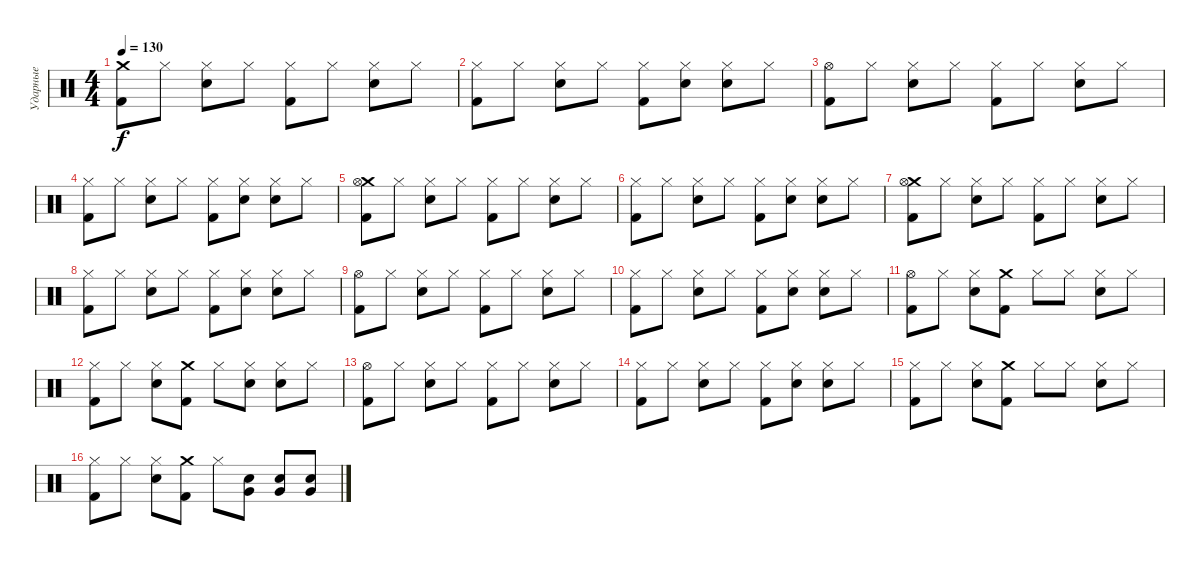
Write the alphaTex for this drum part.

\track ("Ударные" "Ударные") {instrument percussion}
\staff {score}
\articulation defaults
\ts (4 4)
\tempo 130
\clef neutral
\ks c
("Crash medium (hit)" "Kick (hit) 2").8{dy f} "Hi-Hat (closed)".8 ("Hi-Hat (closed)" "Snare (hit) 2").8 "Hi-Hat (closed)".8 ("Hi-Hat (closed)" "Kick (hit) 2").8 "Hi-Hat (closed)".8 ("Hi-Hat (closed)" "Snare (hit) 2").8 "Hi-Hat (closed)".8 |
("Hi-Hat (closed)" "Kick (hit) 2").8 "Hi-Hat (closed)".8 ("Hi-Hat (closed)" "Snare (hit) 2").8 "Hi-Hat (closed)".8 ("Hi-Hat (closed)" "Kick (hit) 2").8 ("Hi-Hat (closed)" "Snare (hit) 2").8 ("Hi-Hat (closed)" "Snare (hit) 2").8 "Hi-Hat (closed)".8 |
("Hi-Hat (open)" "Kick (hit) 2").8 "Hi-Hat (closed)".8 ("Hi-Hat (closed)" "Snare (hit) 2").8 "Hi-Hat (closed)".8 ("Hi-Hat (closed)" "Kick (hit) 2").8 "Hi-Hat (closed)".8 ("Hi-Hat (closed)" "Snare (hit) 2").8 "Hi-Hat (closed)".8 |
("Hi-Hat (closed)" "Kick (hit) 2").8 "Hi-Hat (closed)".8 ("Hi-Hat (closed)" "Snare (hit) 2").8 "Hi-Hat (closed)".8 ("Hi-Hat (closed)" "Kick (hit) 2").8 ("Hi-Hat (closed)" "Snare (hit) 2").8 ("Hi-Hat (closed)" "Snare (hit) 2").8 "Hi-Hat (closed)".8 |
("Crash medium (hit)" "Hi-Hat (open)" "Kick (hit) 2").8 "Hi-Hat (closed)".8 ("Hi-Hat (closed)" "Snare (hit) 2").8 "Hi-Hat (closed)".8 ("Hi-Hat (closed)" "Kick (hit) 2").8 "Hi-Hat (closed)".8 ("Hi-Hat (closed)" "Snare (hit) 2").8 "Hi-Hat (closed)".8 |
("Hi-Hat (closed)" "Kick (hit) 2").8 "Hi-Hat (closed)".8 ("Hi-Hat (closed)" "Snare (hit) 2").8 "Hi-Hat (closed)".8 ("Hi-Hat (closed)" "Kick (hit) 2").8 ("Hi-Hat (closed)" "Snare (hit) 2").8 ("Hi-Hat (closed)" "Snare (hit) 2").8 "Hi-Hat (closed)".8 |
("Crash medium (hit)" "Hi-Hat (open)" "Kick (hit) 2").8 "Hi-Hat (closed)".8 ("Hi-Hat (closed)" "Snare (hit) 2").8 "Hi-Hat (closed)".8 ("Hi-Hat (closed)" "Kick (hit) 2").8 "Hi-Hat (closed)".8 ("Hi-Hat (closed)" "Snare (hit) 2").8 "Hi-Hat (closed)".8 |
("Hi-Hat (closed)" "Kick (hit) 2").8 "Hi-Hat (closed)".8 ("Hi-Hat (closed)" "Snare (hit) 2").8 "Hi-Hat (closed)".8 ("Hi-Hat (closed)" "Kick (hit) 2").8 ("Hi-Hat (closed)" "Snare (hit) 2").8 ("Hi-Hat (closed)" "Snare (hit) 2").8 "Hi-Hat (closed)".8 |
("Hi-Hat (open)" "Kick (hit) 2").8 "Hi-Hat (closed)".8 ("Hi-Hat (closed)" "Snare (hit) 2").8 "Hi-Hat (closed)".8 ("Hi-Hat (closed)" "Kick (hit) 2").8 "Hi-Hat (closed)".8 ("Hi-Hat (closed)" "Snare (hit) 2").8 "Hi-Hat (closed)".8 |
("Hi-Hat (closed)" "Kick (hit) 2").8 "Hi-Hat (closed)".8 ("Hi-Hat (closed)" "Snare (hit) 2").8 "Hi-Hat (closed)".8 ("Hi-Hat (closed)" "Kick (hit) 2").8 ("Hi-Hat (closed)" "Snare (hit) 2").8 ("Hi-Hat (closed)" "Snare (hit) 2").8 "Hi-Hat (closed)".8 |
("Hi-Hat (open)" "Kick (hit) 2").8 "Hi-Hat (closed)".8 ("Hi-Hat (closed)" "Snare (hit) 2").8 ("Crash medium (hit)" "Kick (hit) 2").8 "Hi-Hat (closed)".8 "Hi-Hat (closed)".8 ("Hi-Hat (closed)" "Snare (hit) 2").8 "Hi-Hat (closed)".8 |
("Hi-Hat (closed)" "Kick (hit) 2").8 "Hi-Hat (closed)".8 ("Hi-Hat (closed)" "Snare (hit) 2").8 ("Crash medium (hit)" "Kick (hit) 2").8 "Hi-Hat (closed)".8 ("Hi-Hat (closed)" "Snare (hit) 2").8 ("Hi-Hat (closed)" "Snare (hit) 2").8 "Hi-Hat (closed)".8 |
("Hi-Hat (open)" "Kick (hit) 2").8 "Hi-Hat (closed)".8 ("Hi-Hat (closed)" "Snare (hit) 2").8 "Hi-Hat (closed)".8 ("Hi-Hat (closed)" "Kick (hit) 2").8 "Hi-Hat (closed)".8 ("Hi-Hat (closed)" "Snare (hit) 2").8 "Hi-Hat (closed)".8 |
("Hi-Hat (closed)" "Kick (hit) 2").8 "Hi-Hat (closed)".8 ("Hi-Hat (closed)" "Snare (hit) 2").8 "Hi-Hat (closed)".8 ("Hi-Hat (closed)" "Kick (hit) 2").8 ("Hi-Hat (closed)" "Snare (hit) 2").8 ("Hi-Hat (closed)" "Snare (hit) 2").8 "Hi-Hat (closed)".8 |
("Hi-Hat (closed)" "Kick (hit) 2").8 "Hi-Hat (closed)".8 ("Hi-Hat (closed)" "Snare (hit) 2").8 ("Crash medium (hit)" "Kick (hit) 2").8 "Hi-Hat (closed)".8 "Hi-Hat (closed)".8 ("Hi-Hat (closed)" "Snare (hit) 2").8 "Hi-Hat (closed)".8 |
("Hi-Hat (closed)" "Kick (hit) 2").8 "Hi-Hat (closed)".8 ("Hi-Hat (closed)" "Snare (hit) 2").8 ("Crash medium (hit)" "Kick (hit) 2").8 "Hi-Hat (closed)".8 ("Snare (hit) 2" "Very Low Tom (hit)").8 ("Snare (hit) 2" "Very Low Tom (hit)").8 ("Snare (hit) 2" "Very Low Tom (hit)").8
